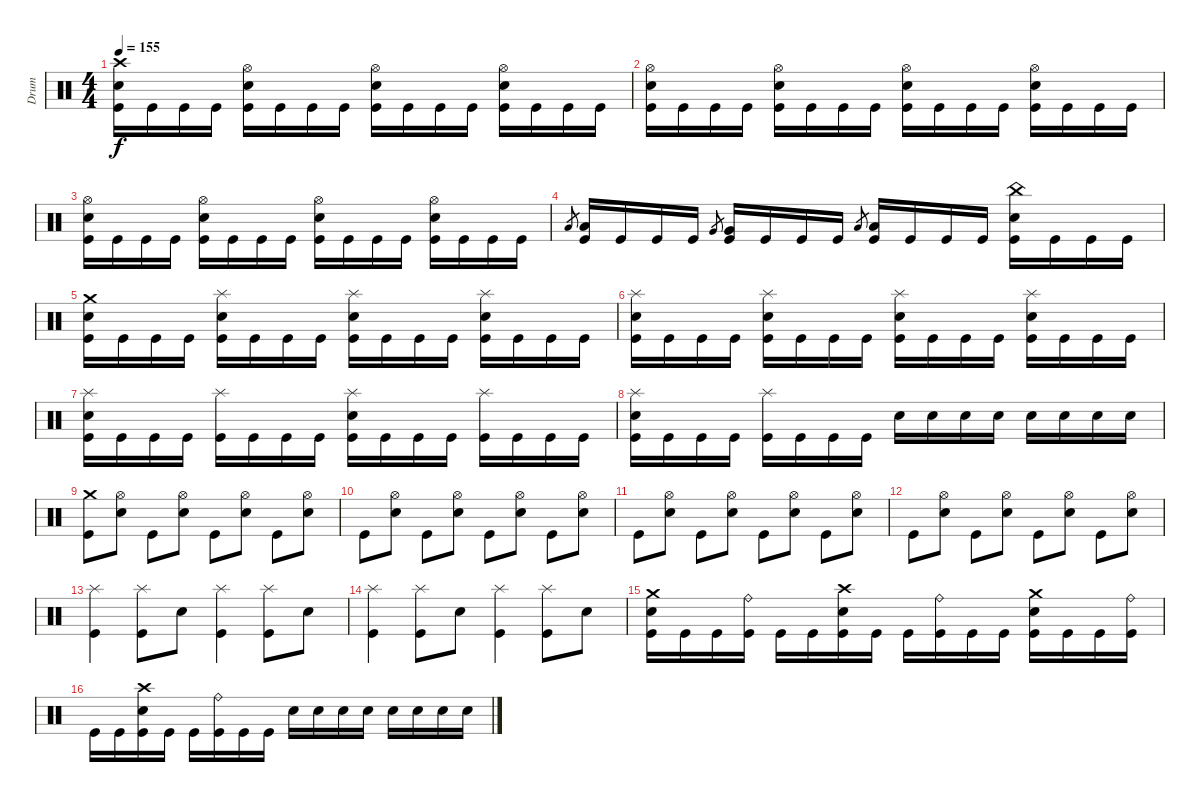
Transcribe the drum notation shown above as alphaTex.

\track ("Drum" "Drum") {instrument percussion}
\staff {score}
\articulation defaults
\ts (4 4)
\tempo 155
\clef neutral
\ks c
("Kick (hit)" "Electric Snare (hit)" "Crash high (hit)").16{dy f} "Kick (hit)".16 "Kick (hit)".16 "Kick (hit)".16 ("Kick (hit)" "Electric Snare (hit)" "Hi-Hat (open)").16 "Kick (hit)".16 "Kick (hit)".16 "Kick (hit)".16 ("Kick (hit)" "Electric Snare (hit)" "Hi-Hat (open)").16 "Kick (hit)".16 "Kick (hit)".16 "Kick (hit)".16 ("Kick (hit)" "Electric Snare (hit)" "Hi-Hat (open)").16 "Kick (hit)".16 "Kick (hit)".16 "Kick (hit)".16 |
("Kick (hit)" "Electric Snare (hit)" "Hi-Hat (open)").16 "Kick (hit)".16 "Kick (hit)".16 "Kick (hit)".16 ("Kick (hit)" "Electric Snare (hit)" "Hi-Hat (open)").16 "Kick (hit)".16 "Kick (hit)".16 "Kick (hit)".16 ("Kick (hit)" "Electric Snare (hit)" "Hi-Hat (open)").16 "Kick (hit)".16 "Kick (hit)".16 "Kick (hit)".16 ("Kick (hit)" "Electric Snare (hit)" "Hi-Hat (open)").16 "Kick (hit)".16 "Kick (hit)".16 "Kick (hit)".16 |
("Kick (hit)" "Electric Snare (hit)" "Hi-Hat (open)").16 "Kick (hit)".16 "Kick (hit)".16 "Kick (hit)".16 ("Kick (hit)" "Electric Snare (hit)" "Hi-Hat (open)").16 "Kick (hit)".16 "Kick (hit)".16 "Kick (hit)".16 ("Kick (hit)" "Electric Snare (hit)" "Hi-Hat (open)").16 "Kick (hit)".16 "Kick (hit)".16 "Kick (hit)".16 ("Kick (hit)" "Electric Snare (hit)" "Hi-Hat (open)").16 "Kick (hit)".16 "Kick (hit)".16 "Kick (hit)".16 |
"Low Tom (hit)".8{gr} ("Kick (hit)" "Low Tom (hit)").16 "Kick (hit)".16 "Kick (hit)".16 "Kick (hit)".16 "Very Low Tom (hit)".8{gr} ("Kick (hit)" "Very Low Tom (hit)").16 "Kick (hit)".16 "Kick (hit)".16 "Kick (hit)".16 "Low Floor Tom (hit)".8{gr} ("Kick (hit)" "Low Floor Tom (hit)").16 "Kick (hit)".16 "Kick (hit)".16 "Kick (hit)".16 ("Kick (hit)" "Electric Snare (hit)" "China (hit)").16 "Kick (hit)".16 "Kick (hit)".16 "Kick (hit)".16 |
("Kick (hit)" "Electric Snare (hit)" "Crash medium (hit)").16 "Kick (hit)".16 "Kick (hit)".16 "Kick (hit)".16 ("Kick (hit)" "Electric Snare (hit)" "Splash (hit)").16 "Kick (hit)".16 "Kick (hit)".16 "Kick (hit)".16 ("Kick (hit)" "Electric Snare (hit)" "Splash (hit)").16 "Kick (hit)".16 "Kick (hit)".16 "Kick (hit)".16 ("Kick (hit)" "Electric Snare (hit)" "Splash (hit)").16 "Kick (hit)".16 "Kick (hit)".16 "Kick (hit)".16 |
("Kick (hit)" "Electric Snare (hit)" "Splash (hit)").16 "Kick (hit)".16 "Kick (hit)".16 "Kick (hit)".16 ("Kick (hit)" "Electric Snare (hit)" "Splash (hit)").16 "Kick (hit)".16 "Kick (hit)".16 "Kick (hit)".16 ("Kick (hit)" "Electric Snare (hit)" "Splash (hit)").16 "Kick (hit)".16 "Kick (hit)".16 "Kick (hit)".16 ("Kick (hit)" "Electric Snare (hit)" "Splash (hit)").16 "Kick (hit)".16 "Kick (hit)".16 "Kick (hit)".16 |
("Kick (hit)" "Electric Snare (hit)" "Splash (hit)").16 "Kick (hit)".16 "Kick (hit)".16 "Kick (hit)".16 ("Kick (hit)" "Splash (hit)").16 "Kick (hit)".16 "Kick (hit)".16 "Kick (hit)".16 ("Kick (hit)" "Electric Snare (hit)" "Splash (hit)").16 "Kick (hit)".16 "Kick (hit)".16 "Kick (hit)".16 ("Kick (hit)" "Splash (hit)").16 "Kick (hit)".16 "Kick (hit)".16 "Kick (hit)".16 |
("Kick (hit)" "Electric Snare (hit)" "Splash (hit)").16 "Kick (hit)".16 "Kick (hit)".16 "Kick (hit)".16 ("Kick (hit)" "Splash (hit)").16 "Kick (hit)".16 "Kick (hit)".16 "Kick (hit)".16 "Electric Snare (hit)".16 "Electric Snare (hit)".16 "Electric Snare (hit)".16 "Electric Snare (hit)".16 "Electric Snare (hit)".16 "Electric Snare (hit)".16 "Electric Snare (hit)".16 "Electric Snare (hit)".16 |
("Kick (hit)" "Crash medium (hit)").8 ("Electric Snare (hit)" "Hi-Hat (open)").8 "Kick (hit)".8 ("Electric Snare (hit)" "Hi-Hat (open)").8 "Kick (hit)".8 ("Electric Snare (hit)" "Hi-Hat (open)").8 "Kick (hit)".8 ("Electric Snare (hit)" "Hi-Hat (open)").8 |
"Kick (hit)".8 ("Electric Snare (hit)" "Hi-Hat (open)").8 "Kick (hit)".8 ("Electric Snare (hit)" "Hi-Hat (open)").8 "Kick (hit)".8 ("Electric Snare (hit)" "Hi-Hat (open)").8 "Kick (hit)".8 ("Electric Snare (hit)" "Hi-Hat (open)").8 |
"Kick (hit)".8 ("Electric Snare (hit)" "Hi-Hat (open)").8 "Kick (hit)".8 ("Electric Snare (hit)" "Hi-Hat (open)").8 "Kick (hit)".8 ("Electric Snare (hit)" "Hi-Hat (open)").8 "Kick (hit)".8 ("Electric Snare (hit)" "Hi-Hat (open)").8 |
"Kick (hit)".8 ("Electric Snare (hit)" "Hi-Hat (open)").8 "Kick (hit)".8 ("Electric Snare (hit)" "Hi-Hat (open)").8 "Kick (hit)".8 ("Electric Snare (hit)" "Hi-Hat (open)").8 "Kick (hit)".8 ("Electric Snare (hit)" "Hi-Hat (open)").8 |
("Kick (hit)" "Splash (hit)").4 ("Kick (hit)" "Splash (hit)").8 "Electric Snare (hit)".8 ("Kick (hit)" "Splash (hit)").4 ("Kick (hit)" "Splash (hit)").8 "Electric Snare (hit)".8 |
("Kick (hit)" "Splash (hit)").4 ("Kick (hit)" "Splash (hit)").8 "Electric Snare (hit)".8 ("Kick (hit)" "Splash (hit)").4 ("Kick (hit)" "Splash (hit)").8 "Electric Snare (hit)".8 |
("Kick (hit)" "Electric Snare (hit)" "Crash medium (hit)").16 "Kick (hit)".16 "Kick (hit)".16 ("Kick (hit)" "Ride (bell)").16 "Kick (hit)".16 "Kick (hit)".16 ("Kick (hit)" "Electric Snare (hit)" "Crash high (hit)").16 "Kick (hit)".16 "Kick (hit)".16 ("Kick (hit)" "Ride (bell)").16 "Kick (hit)".16 "Kick (hit)".16 ("Kick (hit)" "Electric Snare (hit)" "Crash medium (hit)").16 "Kick (hit)".16 "Kick (hit)".16 ("Kick (hit)" "Ride (bell)").16 |
"Kick (hit)".16 "Kick (hit)".16 ("Kick (hit)" "Electric Snare (hit)" "Crash high (hit)").16 "Kick (hit)".16 "Kick (hit)".16 ("Kick (hit)" "Ride (bell)").16 "Kick (hit)".16 "Kick (hit)".16 "Electric Snare (hit)".16 "Electric Snare (hit)".16 "Electric Snare (hit)".16 "Electric Snare (hit)".16 "Electric Snare (hit)".16 "Electric Snare (hit)".16 "Electric Snare (hit)".16 "Electric Snare (hit)".16
